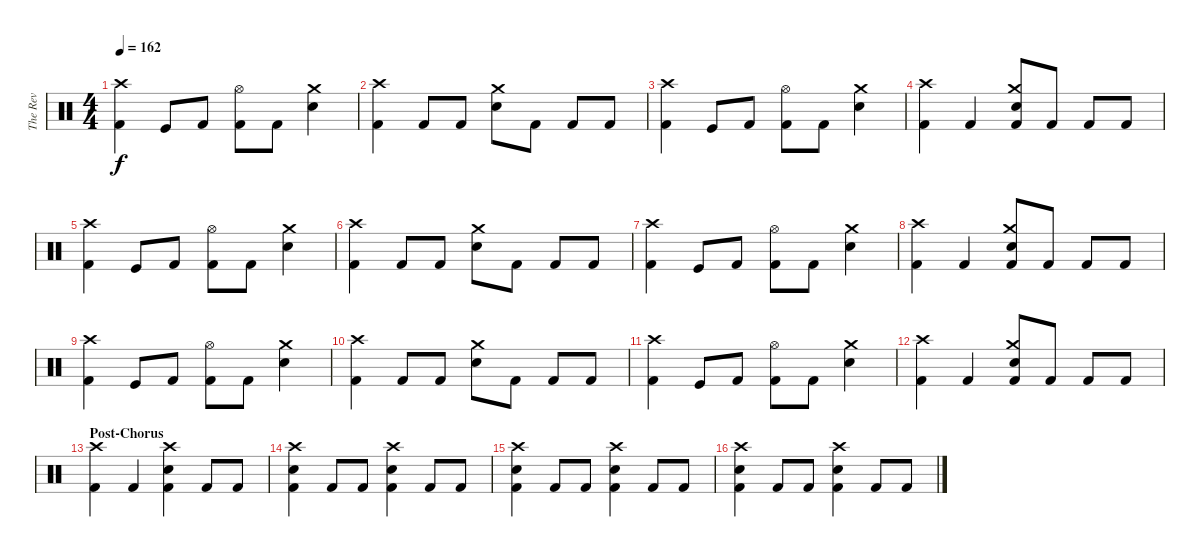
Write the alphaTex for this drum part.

\track ("The Rev" "The Rev") {instrument percussion}
\staff {score}
\articulation defaults
\ts (4 4)
\tempo 162
\clef neutral
\ks c
("Crash high (hit)" "Kick (hit) 2").4{dy f} "Kick (hit)".8 "Kick (hit) 2".8 ("Hi-Hat (open)" "Kick (hit) 2").8 "Kick (hit) 2".8 ("Crash medium (hit)" "Electric Snare (hit)").4 |
("Crash high (hit)" "Kick (hit) 2").4 "Kick (hit) 2".8 "Kick (hit) 2".8 ("Crash medium (hit)" "Electric Snare (hit)").8 "Kick (hit) 2".8 "Kick (hit) 2".8 "Kick (hit) 2".8 |
("Crash high (hit)" "Kick (hit) 2").4 "Kick (hit)".8 "Kick (hit) 2".8 ("Hi-Hat (open)" "Kick (hit) 2").8 "Kick (hit) 2".8 ("Crash medium (hit)" "Electric Snare (hit)").4 |
("Crash high (hit)" "Kick (hit) 2").4 "Kick (hit) 2".4 ("Crash medium (hit)" "Electric Snare (hit)" "Kick (hit) 2").8 "Kick (hit) 2".8 "Kick (hit) 2".8 "Kick (hit) 2".8 |
("Crash high (hit)" "Kick (hit) 2").4 "Kick (hit)".8 "Kick (hit) 2".8 ("Hi-Hat (open)" "Kick (hit) 2").8 "Kick (hit) 2".8 ("Crash medium (hit)" "Electric Snare (hit)").4 |
("Crash high (hit)" "Kick (hit) 2").4 "Kick (hit) 2".8 "Kick (hit) 2".8 ("Crash medium (hit)" "Electric Snare (hit)").8 "Kick (hit) 2".8 "Kick (hit) 2".8 "Kick (hit) 2".8 |
("Crash high (hit)" "Kick (hit) 2").4 "Kick (hit)".8 "Kick (hit) 2".8 ("Hi-Hat (open)" "Kick (hit) 2").8 "Kick (hit) 2".8 ("Crash medium (hit)" "Electric Snare (hit)").4 |
("Crash high (hit)" "Kick (hit) 2").4 "Kick (hit) 2".4 ("Crash medium (hit)" "Electric Snare (hit)" "Kick (hit) 2").8 "Kick (hit) 2".8 "Kick (hit) 2".8 "Kick (hit) 2".8 |
("Crash high (hit)" "Kick (hit) 2").4 "Kick (hit)".8 "Kick (hit) 2".8 ("Hi-Hat (open)" "Kick (hit) 2").8 "Kick (hit) 2".8 ("Crash medium (hit)" "Electric Snare (hit)").4 |
("Crash high (hit)" "Kick (hit) 2").4 "Kick (hit) 2".8 "Kick (hit) 2".8 ("Crash medium (hit)" "Electric Snare (hit)").8 "Kick (hit) 2".8 "Kick (hit) 2".8 "Kick (hit) 2".8 |
("Crash high (hit)" "Kick (hit) 2").4 "Kick (hit)".8 "Kick (hit) 2".8 ("Hi-Hat (open)" "Kick (hit) 2").8 "Kick (hit) 2".8 ("Crash medium (hit)" "Electric Snare (hit)").4 |
("Crash high (hit)" "Kick (hit) 2").4 "Kick (hit) 2".4 ("Crash medium (hit)" "Electric Snare (hit)" "Kick (hit) 2").8 "Kick (hit) 2".8 "Kick (hit) 2".8 "Kick (hit) 2".8 |
\section ("" "Post-Chorus")
("Crash high (hit)" "Kick (hit) 2").4 "Kick (hit) 2".4 ("Crash high (hit)" "Electric Snare (hit)" "Kick (hit) 2").4 "Kick (hit) 2".8 "Kick (hit) 2".8 |
("Crash high (hit)" "Electric Snare (hit)" "Kick (hit) 2").4 "Kick (hit) 2".8 "Kick (hit) 2".8 ("Crash high (hit)" "Electric Snare (hit)" "Kick (hit) 2").4 "Kick (hit) 2".8 "Kick (hit) 2".8 |
("Crash high (hit)" "Electric Snare (hit)" "Kick (hit) 2").4 "Kick (hit) 2".8 "Kick (hit) 2".8 ("Crash high (hit)" "Electric Snare (hit)" "Kick (hit) 2").4 "Kick (hit) 2".8 "Kick (hit) 2".8 |
("Crash high (hit)" "Electric Snare (hit)" "Kick (hit) 2").4 "Kick (hit) 2".8 "Kick (hit) 2".8 ("Crash high (hit)" "Electric Snare (hit)" "Kick (hit) 2").4 "Kick (hit) 2".8 "Kick (hit) 2".8
